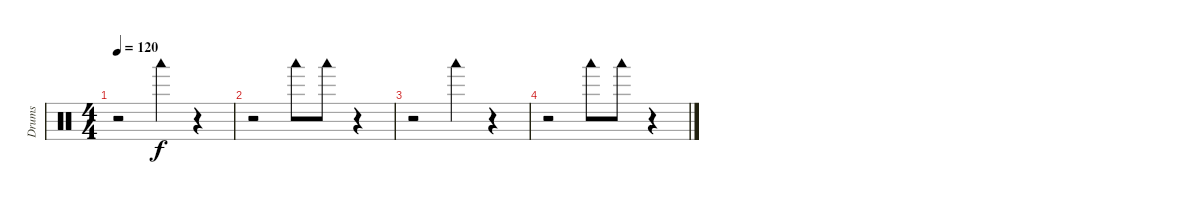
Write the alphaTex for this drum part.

\track ("Drums" "Drums") {instrument percussion}
\staff {score}
\articulation defaults
\ts (4 4)
\tempo 120
\clef neutral
\ks c
r.2{dy f} "Woodblock low (hit)".4 r.4 |
r.2 "Woodblock low (hit)".8 "Woodblock low (hit)".8 r.4 |
r.2 "Woodblock low (hit)".4 r.4 |
r.2 "Woodblock low (hit)".8 "Woodblock low (hit)".8 r.4
